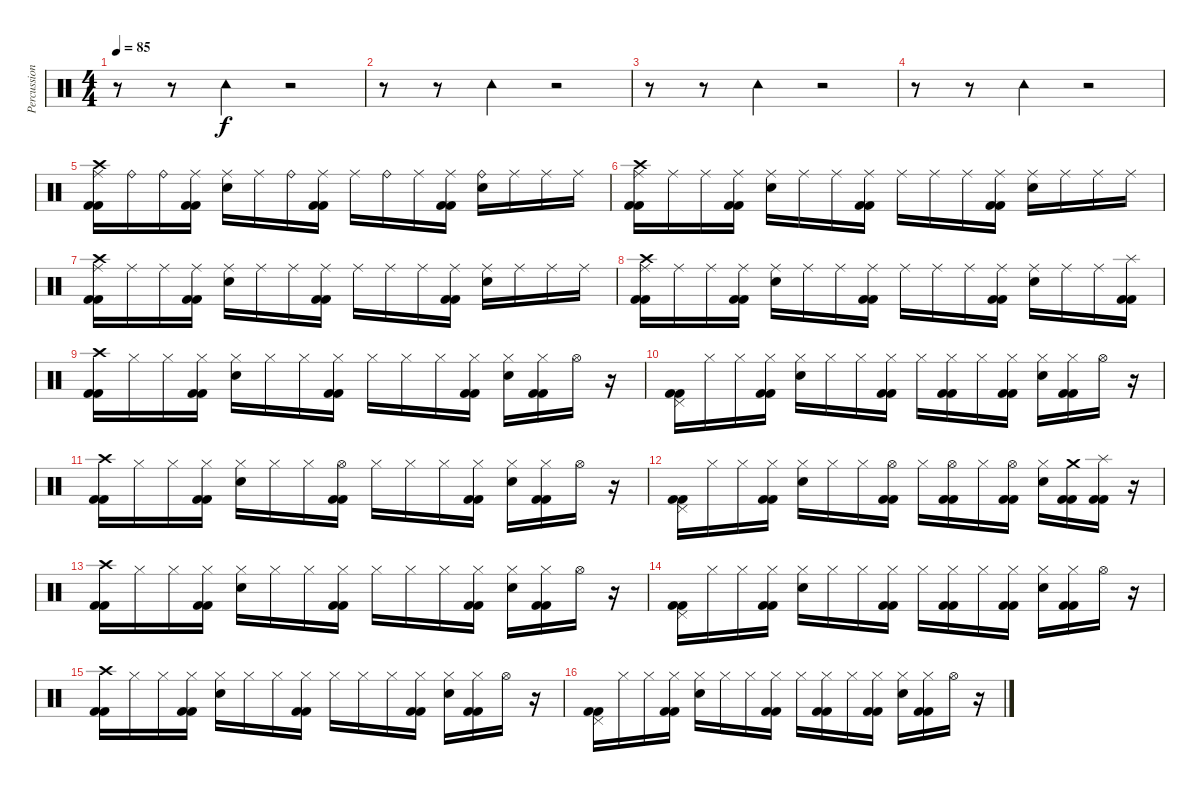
\track ("Percussion" "Percussion") {instrument percussion}
\staff {score}
\articulation defaults
\ts (4 4)
\tempo 85
\clef neutral
\ks c
r.8{dy f} r.8 "Tambourine (hit)".4 r.2 |
r.8 r.8 "Tambourine (hit)".4 r.2 |
r.8 r.8 "Tambourine (hit)".4 r.2 |
r.8 r.8 "Tambourine (hit)".4 r.2 |
("Ride (middle)" "Crash high (hit)" "Kick (hit) 2" "Kick (hit) 2").16 "Ride (bell)".16 "Ride (bell)".16 ("Ride (middle)" "Kick (hit) 2" "Kick (hit) 2").16 ("Ride (middle)" "Electric Snare (hit)").16 "Ride (middle)".16 "Ride (bell)".16 ("Ride (middle)" "Kick (hit) 2" "Kick (hit) 2").16 "Ride (middle)".16 "Ride (bell)".16 "Ride (middle)".16 ("Ride (middle)" "Kick (hit) 2" "Kick (hit) 2").16 ("Ride (bell)" "Electric Snare (hit)").16 "Ride (middle)".16 "Ride (middle)".16 "Ride (middle)".16 |
("Ride (middle)" "Crash high (hit)" "Kick (hit) 2" "Kick (hit) 2").16 "Ride (middle)".16 "Ride (middle)".16 ("Ride (middle)" "Kick (hit) 2" "Kick (hit) 2").16 ("Ride (middle)" "Electric Snare (hit)").16 "Ride (middle)".16 "Ride (middle)".16 ("Ride (middle)" "Kick (hit) 2" "Kick (hit) 2").16 "Ride (middle)".16 "Ride (middle)".16 "Ride (middle)".16 ("Ride (middle)" "Kick (hit) 2" "Kick (hit) 2").16 ("Ride (middle)" "Electric Snare (hit)").16 "Ride (middle)".16 "Ride (middle)".16 "Ride (middle)".16 |
("Ride (middle)" "Crash high (hit)" "Kick (hit) 2" "Kick (hit) 2").16 "Ride (middle)".16 "Ride (middle)".16 ("Ride (middle)" "Kick (hit) 2" "Kick (hit) 2").16 ("Ride (middle)" "Electric Snare (hit)").16 "Ride (middle)".16 "Ride (middle)".16 ("Ride (middle)" "Kick (hit) 2" "Kick (hit) 2").16 "Ride (middle)".16 "Ride (middle)".16 "Ride (middle)".16 ("Ride (middle)" "Kick (hit) 2" "Kick (hit) 2").16 ("Ride (middle)" "Electric Snare (hit)").16 "Ride (middle)".16 "Ride (middle)".16 "Ride (middle)".16 |
("Ride (middle)" "Crash high (hit)" "Kick (hit) 2" "Kick (hit) 2").16 "Ride (middle)".16 "Ride (middle)".16 ("Ride (middle)" "Kick (hit) 2" "Kick (hit) 2").16 ("Ride (middle)" "Electric Snare (hit)").16 "Ride (middle)".16 "Ride (middle)".16 ("Ride (middle)" "Kick (hit) 2" "Kick (hit) 2").16 "Ride (middle)".16 "Ride (middle)".16 "Ride (middle)".16 ("Ride (middle)" "Kick (hit) 2" "Kick (hit) 2").16 ("Ride (middle)" "Electric Snare (hit)").16 "Ride (middle)".16 "Ride (middle)".16 ("Splash (hit)" "Kick (hit) 2" "Kick (hit) 2").16 |
("Crash high (hit)" "Kick (hit) 2" "Kick (hit) 2").16 "Hi-Hat (closed)".16 "Hi-Hat (closed)".16 ("Hi-Hat (closed)" "Kick (hit) 2" "Kick (hit) 2").16 ("Hi-Hat (closed)" "Electric Snare (hit)").16 "Hi-Hat (closed)".16 "Hi-Hat (closed)".16 ("Hi-Hat (closed)" "Kick (hit) 2" "Kick (hit) 2").16 "Hi-Hat (closed)".16 "Hi-Hat (closed)".16 "Hi-Hat (closed)".16 ("Hi-Hat (closed)" "Kick (hit) 2" "Kick (hit) 2").16 ("Hi-Hat (closed)" "Electric Snare (hit)").16 ("Hi-Hat (closed)" "Kick (hit) 2" "Kick (hit) 2").16 "Hi-Hat (open)".16 r.16 |
("Pedal Hi-Hat (hit)" "Kick (hit) 2" "Kick (hit) 2").16 "Hi-Hat (closed)".16 "Hi-Hat (closed)".16 ("Hi-Hat (closed)" "Kick (hit) 2" "Kick (hit) 2").16 ("Hi-Hat (closed)" "Electric Snare (hit)").16 "Hi-Hat (closed)".16 "Hi-Hat (closed)".16 ("Hi-Hat (closed)" "Kick (hit) 2" "Kick (hit) 2").16 "Hi-Hat (closed)".16 ("Hi-Hat (closed)" "Kick (hit) 2" "Kick (hit) 2").16 "Hi-Hat (closed)".16 ("Hi-Hat (closed)" "Kick (hit) 2" "Kick (hit) 2").16 ("Hi-Hat (closed)" "Electric Snare (hit)").16 ("Hi-Hat (closed)" "Kick (hit) 2" "Kick (hit) 2").16 "Hi-Hat (open)".16 r.16 |
("Crash high (hit)" "Kick (hit) 2" "Kick (hit) 2").16 "Hi-Hat (closed)".16 "Hi-Hat (closed)".16 ("Hi-Hat (closed)" "Kick (hit) 2" "Kick (hit) 2").16 ("Hi-Hat (closed)" "Electric Snare (hit)").16 "Hi-Hat (closed)".16 "Hi-Hat (closed)".16 ("Hi-Hat (open)" "Kick (hit) 2" "Kick (hit) 2").16 "Hi-Hat (closed)".16 "Hi-Hat (closed)".16 "Hi-Hat (closed)".16 ("Hi-Hat (closed)" "Kick (hit) 2" "Kick (hit) 2").16 ("Hi-Hat (closed)" "Electric Snare (hit)").16 ("Hi-Hat (closed)" "Kick (hit) 2" "Kick (hit) 2").16 "Hi-Hat (open)".16 r.16 |
("Pedal Hi-Hat (hit)" "Kick (hit) 2" "Kick (hit) 2").16 "Hi-Hat (closed)".16 "Hi-Hat (closed)".16 ("Hi-Hat (closed)" "Kick (hit) 2" "Kick (hit) 2").16 ("Hi-Hat (closed)" "Electric Snare (hit)").16 "Hi-Hat (closed)".16 "Hi-Hat (closed)".16 ("Hi-Hat (open)" "Kick (hit) 2" "Kick (hit) 2").16 "Hi-Hat (closed)".16 ("Hi-Hat (open)" "Kick (hit) 2" "Kick (hit) 2").16 "Hi-Hat (closed)".16 ("Hi-Hat (open)" "Kick (hit) 2" "Kick (hit) 2").16 ("Hi-Hat (closed)" "Electric Snare (hit)").16 ("Crash medium (hit)" "Kick (hit) 2" "Kick (hit) 2").16 ("Splash (hit)" "Kick (hit) 2" "Kick (hit) 2").16 r.16 |
("Crash high (hit)" "Kick (hit) 2" "Kick (hit) 2").16 "Hi-Hat (closed)".16 "Hi-Hat (closed)".16 ("Hi-Hat (closed)" "Kick (hit) 2" "Kick (hit) 2").16 ("Hi-Hat (closed)" "Electric Snare (hit)").16 "Hi-Hat (closed)".16 "Hi-Hat (closed)".16 ("Hi-Hat (closed)" "Kick (hit) 2" "Kick (hit) 2").16 "Hi-Hat (closed)".16 "Hi-Hat (closed)".16 "Hi-Hat (closed)".16 ("Hi-Hat (closed)" "Kick (hit) 2" "Kick (hit) 2").16 ("Hi-Hat (closed)" "Electric Snare (hit)").16 ("Hi-Hat (closed)" "Kick (hit) 2" "Kick (hit) 2").16 "Hi-Hat (open)".16 r.16 |
("Pedal Hi-Hat (hit)" "Kick (hit) 2" "Kick (hit) 2").16 "Hi-Hat (closed)".16 "Hi-Hat (closed)".16 ("Hi-Hat (closed)" "Kick (hit) 2" "Kick (hit) 2").16 ("Hi-Hat (closed)" "Electric Snare (hit)").16 "Hi-Hat (closed)".16 "Hi-Hat (closed)".16 ("Hi-Hat (closed)" "Kick (hit) 2" "Kick (hit) 2").16 "Hi-Hat (closed)".16 ("Hi-Hat (closed)" "Kick (hit) 2" "Kick (hit) 2").16 "Hi-Hat (closed)".16 ("Hi-Hat (closed)" "Kick (hit) 2" "Kick (hit) 2").16 ("Hi-Hat (closed)" "Electric Snare (hit)").16 ("Hi-Hat (closed)" "Kick (hit) 2" "Kick (hit) 2").16 "Hi-Hat (open)".16 r.16 |
("Crash high (hit)" "Kick (hit) 2" "Kick (hit) 2").16 "Hi-Hat (closed)".16 "Hi-Hat (closed)".16 ("Hi-Hat (closed)" "Kick (hit) 2" "Kick (hit) 2").16 ("Hi-Hat (closed)" "Electric Snare (hit)").16 "Hi-Hat (closed)".16 "Hi-Hat (closed)".16 ("Hi-Hat (closed)" "Kick (hit) 2" "Kick (hit) 2").16 "Hi-Hat (closed)".16 "Hi-Hat (closed)".16 "Hi-Hat (closed)".16 ("Hi-Hat (closed)" "Kick (hit) 2" "Kick (hit) 2").16 ("Hi-Hat (closed)" "Electric Snare (hit)").16 ("Hi-Hat (closed)" "Kick (hit) 2" "Kick (hit) 2").16 "Hi-Hat (open)".16 r.16 |
("Pedal Hi-Hat (hit)" "Kick (hit) 2" "Kick (hit) 2").16 "Hi-Hat (closed)".16 "Hi-Hat (closed)".16 ("Hi-Hat (closed)" "Kick (hit) 2" "Kick (hit) 2").16 ("Hi-Hat (closed)" "Electric Snare (hit)").16 "Hi-Hat (closed)".16 "Hi-Hat (closed)".16 ("Hi-Hat (closed)" "Kick (hit) 2" "Kick (hit) 2").16 "Hi-Hat (closed)".16 ("Hi-Hat (closed)" "Kick (hit) 2" "Kick (hit) 2").16 "Hi-Hat (closed)".16 ("Hi-Hat (closed)" "Kick (hit) 2" "Kick (hit) 2").16 ("Hi-Hat (closed)" "Electric Snare (hit)").16 ("Hi-Hat (closed)" "Kick (hit) 2" "Kick (hit) 2").16 "Hi-Hat (open)".16 r.16
